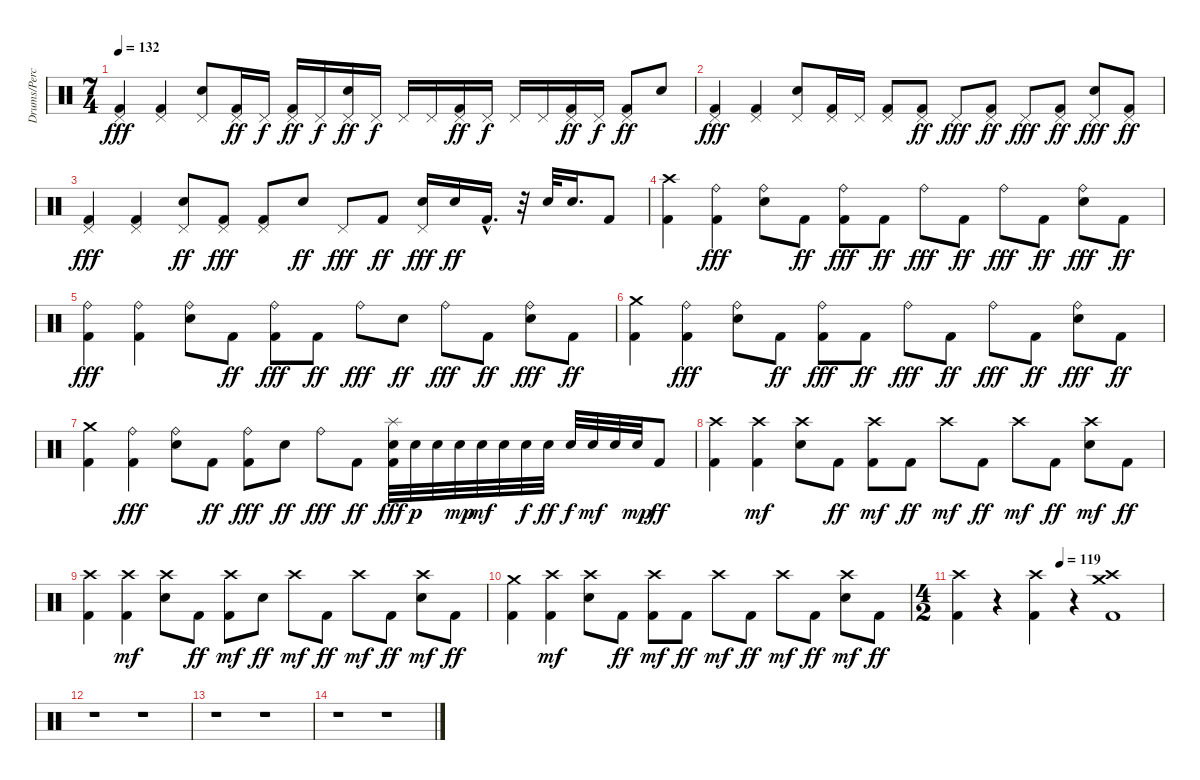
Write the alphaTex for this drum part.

\track ("Drums/Percussion" "Drums/Perc") {instrument percussion}
\staff {score}
\articulation defaults
\ts (7 4)
\tempo 132
\clef neutral
\ks c
("Kick (hit) 2" "Pedal Hi-Hat (hit)").4{dy fff} ("Kick (hit) 2" "Pedal Hi-Hat (hit)").4 ("Snare (hit) 2" "Pedal Hi-Hat (hit)").8 ("Kick (hit) 2" "Pedal Hi-Hat (hit)").16{dy ff} "Pedal Hi-Hat (hit)".16{dy f} ("Kick (hit) 2" "Pedal Hi-Hat (hit)").16{dy ff} "Pedal Hi-Hat (hit)".16{dy f} ("Snare (hit) 2" "Pedal Hi-Hat (hit)").16{dy ff} "Pedal Hi-Hat (hit)".16{dy f} "Pedal Hi-Hat (hit)".16 "Pedal Hi-Hat (hit)".16 ("Kick (hit) 2" "Pedal Hi-Hat (hit)").16{dy ff} "Pedal Hi-Hat (hit)".16{dy f} "Pedal Hi-Hat (hit)".16 "Pedal Hi-Hat (hit)".16 ("Kick (hit) 2" "Pedal Hi-Hat (hit)").16{dy ff} "Pedal Hi-Hat (hit)".16{dy f} ("Kick (hit) 2" "Pedal Hi-Hat (hit)").8{dy ff} "Snare (hit) 2".8 |
("Kick (hit) 2" "Pedal Hi-Hat (hit)").4{dy fff} ("Kick (hit) 2" "Pedal Hi-Hat (hit)").4 ("Snare (hit) 2" "Pedal Hi-Hat (hit)").8 ("Kick (hit) 2" "Pedal Hi-Hat (hit)").16 "Pedal Hi-Hat (hit)".16 ("Kick (hit) 2" "Pedal Hi-Hat (hit)").8 ("Kick (hit) 2" "Pedal Hi-Hat (hit)").8{dy ff} "Pedal Hi-Hat (hit)".8{dy fff} ("Kick (hit) 2" "Pedal Hi-Hat (hit)").8{dy ff} "Pedal Hi-Hat (hit)".8{dy fff} ("Kick (hit) 2" "Pedal Hi-Hat (hit)").8{dy ff} ("Snare (hit) 2" "Pedal Hi-Hat (hit)").8{dy fff} ("Kick (hit) 2" "Pedal Hi-Hat (hit)").8{dy ff} |
("Kick (hit) 2" "Pedal Hi-Hat (hit)").4{dy fff} ("Kick (hit) 2" "Pedal Hi-Hat (hit)").4 ("Snare (hit) 2" "Pedal Hi-Hat (hit)").8{dy ff} ("Kick (hit) 2" "Pedal Hi-Hat (hit)").8{dy fff} ("Kick (hit) 2" "Pedal Hi-Hat (hit)").8 "Snare (hit) 2".8{dy ff} "Pedal Hi-Hat (hit)".8{dy fff} "Kick (hit) 2".8{dy ff} ("Snare (hit) 2" "Pedal Hi-Hat (hit)").16{dy fff} "Snare (hit) 2".16{dy ff} "Kick (hit) 2"{hac}.16{d} r.32 "Snare (hit) 2".32 "Snare (hit) 2".16{d} "Kick (hit) 2".8 |
("Kick (hit) 2" "Crash high (hit)").4 ("Kick (hit) 2" "Ride (bell)").4{dy fff} ("Snare (hit) 2" "Ride (bell)").8 "Kick (hit) 2".8{dy ff} ("Kick (hit) 2" "Ride (bell)").8{dy fff} "Kick (hit) 2".8{dy ff} "Ride (bell)".8{dy fff} "Kick (hit) 2".8{dy ff} "Ride (bell)".8{dy fff} "Kick (hit) 2".8{dy ff} ("Snare (hit) 2" "Ride (bell)").8{dy fff} "Kick (hit) 2".8{dy ff} |
("Kick (hit) 2" "Ride (bell)").4{dy fff} ("Kick (hit) 2" "Ride (bell)").4 ("Snare (hit) 2" "Ride (bell)").8 "Kick (hit) 2".8{dy ff} ("Kick (hit) 2" "Ride (bell)").8{dy fff} "Kick (hit) 2".8{dy ff} "Ride (bell)".8{dy fff} "Snare (hit) 2".8{dy ff} "Ride (bell)".8{dy fff} "Kick (hit) 2".8{dy ff} ("Snare (hit) 2" "Ride (bell)").8{dy fff} "Kick (hit) 2".8{dy ff} |
("Kick (hit) 2" "Crash medium (hit)").4 ("Kick (hit) 2" "Ride (bell)").4{dy fff} ("Snare (hit) 2" "Ride (bell)").8 "Kick (hit) 2".8{dy ff} ("Kick (hit) 2" "Ride (bell)").8{dy fff} "Kick (hit) 2".8{dy ff} "Ride (bell)".8{dy fff} "Kick (hit) 2".8{dy ff} "Ride (bell)".8{dy fff} "Kick (hit) 2".8{dy ff} ("Snare (hit) 2" "Ride (bell)").8{dy fff} "Kick (hit) 2".8{dy ff} |
("Kick (hit) 2" "Crash medium (hit)").4 ("Kick (hit) 2" "Ride (bell)").4{dy fff} ("Snare (hit) 2" "Ride (bell)").8 "Kick (hit) 2".8{dy ff} ("Kick (hit) 2" "Ride (bell)").8{dy fff} "Snare (hit) 2".8{dy ff} "Ride (bell)".8{dy fff} "Kick (hit) 2".8{dy ff} ("Snare (hit) 2" "Kick (hit) 2" "Splash (hit)").32{dy fff} "Snare (hit) 2".32{dy p} "Snare (hit) 2".32 "Snare (hit) 2".32{dy mp} "Snare (hit) 2".32{dy mf} "Snare (hit) 2".32 "Snare (hit) 2".32{dy f} "Snare (hit) 2".32{dy ff} "Snare (hit) 2".32{dy f} "Snare (hit) 2".32{dy mf} "Snare (hit) 2".32 "Snare (hit) 2".32{dy mp} "Kick (hit) 2".8{dy ff} |
("Kick (hit) 2" "Crash high (hit)").4 ("Kick (hit) 2" "Crash high (hit)").4{dy mf} ("Snare (hit) 2" "Crash high (hit)").8 "Kick (hit) 2".8{dy ff} ("Kick (hit) 2" "Crash high (hit)").8{dy mf} "Kick (hit) 2".8{dy ff} "Crash high (hit)".8{dy mf} "Kick (hit) 2".8{dy ff} "Crash high (hit)".8{dy mf} "Kick (hit) 2".8{dy ff} ("Snare (hit) 2" "Crash high (hit)").8{dy mf} "Kick (hit) 2".8{dy ff} |
("Kick (hit) 2" "Crash high (hit)").4 ("Kick (hit) 2" "Crash high (hit)").4{dy mf} ("Snare (hit) 2" "Crash high (hit)").8 "Kick (hit) 2".8{dy ff} ("Kick (hit) 2" "Crash high (hit)").8{dy mf} "Snare (hit) 2".8{dy ff} "Crash high (hit)".8{dy mf} "Kick (hit) 2".8{dy ff} "Crash high (hit)".8{dy mf} "Kick (hit) 2".8{dy ff} ("Snare (hit) 2" "Crash high (hit)").8{dy mf} "Kick (hit) 2".8{dy ff} |
("Kick (hit) 2" "Crash medium (hit)").4 ("Kick (hit) 2" "Crash high (hit)").4{dy mf} ("Snare (hit) 2" "Crash high (hit)").8 "Kick (hit) 2".8{dy ff} ("Kick (hit) 2" "Crash high (hit)").8{dy mf} "Kick (hit) 2".8{dy ff} "Crash high (hit)".8{dy mf} "Kick (hit) 2".8{dy ff} "Crash high (hit)".8{dy mf} "Kick (hit) 2".8{dy ff} ("Snare (hit) 2" "Crash high (hit)").8{dy mf} "Kick (hit) 2".8{dy ff} |
\ts (4 2)
\tempo (119 0.5)
("Kick (hit) 2" "Crash high (hit)").4 r.4 ("Kick (hit) 2" "Crash high (hit)").4 r.4 ("Kick (hit) 2" "Crash high (hit)" "Crash medium (hit)").1 |
r.1 r.1 |
r.1 r.1 |
r.1 r.1
